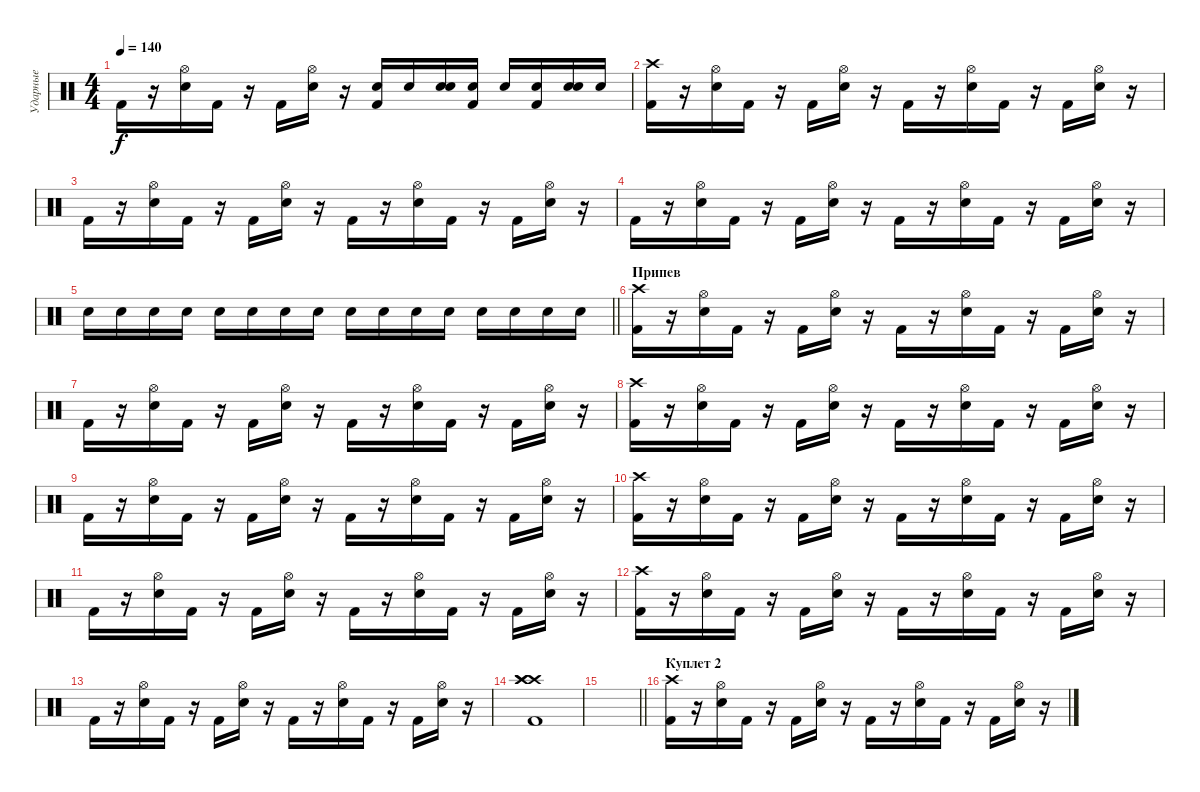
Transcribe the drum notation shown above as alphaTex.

\track ("Ударные" "Ударные") {instrument percussion}
\staff {score}
\articulation defaults
\ts (4 4)
\tempo 140
\clef neutral
\ks c "Kick (hit) 2".16{dy f}
r.16 ("Electric Snare (hit)" "Hi-Hat (open)").16 "Kick (hit) 2".16 r.16 "Kick (hit) 2".16 ("Electric Snare (hit)" "Hi-Hat (open)").16 r.16 ("Kick (hit) 2" "Electric Snare (hit)").16 "Electric Snare (hit)".16 ("Electric Snare (hit)" "Electric Snare (hit)").16 ("Kick (hit) 2" "Electric Snare (hit)").16 "Electric Snare (hit)".16 ("Kick (hit) 2" "Electric Snare (hit)").16 ("Electric Snare (hit)" "Electric Snare (hit)").16 "Electric Snare (hit)".16 |
("Kick (hit) 2" "Crash high (hit)").16 r.16 ("Electric Snare (hit)" "Hi-Hat (open)").16 "Kick (hit) 2".16 r.16 "Kick (hit) 2".16 ("Electric Snare (hit)" "Hi-Hat (open)").16 r.16 "Kick (hit) 2".16 r.16 ("Electric Snare (hit)" "Hi-Hat (open)").16 "Kick (hit) 2".16 r.16 "Kick (hit) 2".16 ("Electric Snare (hit)" "Hi-Hat (open)").16 r.16 |
"Kick (hit) 2".16 r.16 ("Electric Snare (hit)" "Hi-Hat (open)").16 "Kick (hit) 2".16 r.16 "Kick (hit) 2".16 ("Electric Snare (hit)" "Hi-Hat (open)").16 r.16 "Kick (hit) 2".16 r.16 ("Electric Snare (hit)" "Hi-Hat (open)").16 "Kick (hit) 2".16 r.16 "Kick (hit) 2".16 ("Electric Snare (hit)" "Hi-Hat (open)").16 r.16 |
"Kick (hit) 2".16 r.16 ("Electric Snare (hit)" "Hi-Hat (open)").16 "Kick (hit) 2".16 r.16 "Kick (hit) 2".16 ("Electric Snare (hit)" "Hi-Hat (open)").16 r.16 "Kick (hit) 2".16 r.16 ("Electric Snare (hit)" "Hi-Hat (open)").16 "Kick (hit) 2".16 r.16 "Kick (hit) 2".16 ("Electric Snare (hit)" "Hi-Hat (open)").16 r.16 |
\barLineRight lightlight "Electric Snare (hit)".16 "Electric Snare (hit)".16 "Electric Snare (hit)".16 "Electric Snare (hit)".16 "Electric Snare (hit)".16 "Electric Snare (hit)".16 "Electric Snare (hit)".16 "Electric Snare (hit)".16 "Electric Snare (hit)".16 "Electric Snare (hit)".16 "Electric Snare (hit)".16 "Electric Snare (hit)".16 "Electric Snare (hit)".16 "Electric Snare (hit)".16 "Electric Snare (hit)".16 "Electric Snare (hit)".16
|
\section ("" "Припев")
("Kick (hit) 2" "Crash high (hit)").16 r.16 ("Electric Snare (hit)" "Hi-Hat (open)").16 "Kick (hit) 2".16 r.16 "Kick (hit) 2".16 ("Electric Snare (hit)" "Hi-Hat (open)").16 r.16 "Kick (hit) 2".16 r.16 ("Electric Snare (hit)" "Hi-Hat (open)").16 "Kick (hit) 2".16 r.16 "Kick (hit) 2".16 ("Electric Snare (hit)" "Hi-Hat (open)").16 r.16 |
"Kick (hit) 2".16 r.16 ("Electric Snare (hit)" "Hi-Hat (open)").16 "Kick (hit) 2".16 r.16 "Kick (hit) 2".16 ("Electric Snare (hit)" "Hi-Hat (open)").16 r.16 "Kick (hit) 2".16 r.16 ("Electric Snare (hit)" "Hi-Hat (open)").16 "Kick (hit) 2".16 r.16 "Kick (hit) 2".16 ("Electric Snare (hit)" "Hi-Hat (open)").16 r.16 |
("Kick (hit) 2" "Crash high (hit)").16 r.16 ("Electric Snare (hit)" "Hi-Hat (open)").16 "Kick (hit) 2".16 r.16 "Kick (hit) 2".16 ("Electric Snare (hit)" "Hi-Hat (open)").16 r.16 "Kick (hit) 2".16 r.16 ("Electric Snare (hit)" "Hi-Hat (open)").16 "Kick (hit) 2".16 r.16 "Kick (hit) 2".16 ("Electric Snare (hit)" "Hi-Hat (open)").16 r.16 |
"Kick (hit) 2".16 r.16 ("Electric Snare (hit)" "Hi-Hat (open)").16 "Kick (hit) 2".16 r.16 "Kick (hit) 2".16 ("Electric Snare (hit)" "Hi-Hat (open)").16 r.16 "Kick (hit) 2".16 r.16 ("Electric Snare (hit)" "Hi-Hat (open)").16 "Kick (hit) 2".16 r.16 "Kick (hit) 2".16 ("Electric Snare (hit)" "Hi-Hat (open)").16 r.16 |
("Kick (hit) 2" "Crash high (hit)").16 r.16 ("Electric Snare (hit)" "Hi-Hat (open)").16 "Kick (hit) 2".16 r.16 "Kick (hit) 2".16 ("Electric Snare (hit)" "Hi-Hat (open)").16 r.16 "Kick (hit) 2".16 r.16 ("Electric Snare (hit)" "Hi-Hat (open)").16 "Kick (hit) 2".16 r.16 "Kick (hit) 2".16 ("Electric Snare (hit)" "Hi-Hat (open)").16 r.16 |
"Kick (hit) 2".16 r.16 ("Electric Snare (hit)" "Hi-Hat (open)").16 "Kick (hit) 2".16 r.16 "Kick (hit) 2".16 ("Electric Snare (hit)" "Hi-Hat (open)").16 r.16 "Kick (hit) 2".16 r.16 ("Electric Snare (hit)" "Hi-Hat (open)").16 "Kick (hit) 2".16 r.16 "Kick (hit) 2".16 ("Electric Snare (hit)" "Hi-Hat (open)").16 r.16 |
("Kick (hit) 2" "Crash high (hit)").16 r.16 ("Electric Snare (hit)" "Hi-Hat (open)").16 "Kick (hit) 2".16 r.16 "Kick (hit) 2".16 ("Electric Snare (hit)" "Hi-Hat (open)").16 r.16 "Kick (hit) 2".16 r.16 ("Electric Snare (hit)" "Hi-Hat (open)").16 "Kick (hit) 2".16 r.16 "Kick (hit) 2".16 ("Electric Snare (hit)" "Hi-Hat (open)").16 r.16 |
"Kick (hit) 2".16 r.16 ("Electric Snare (hit)" "Hi-Hat (open)").16 "Kick (hit) 2".16 r.16 "Kick (hit) 2".16 ("Electric Snare (hit)" "Hi-Hat (open)").16 r.16 "Kick (hit) 2".16 r.16 ("Electric Snare (hit)" "Hi-Hat (open)").16 "Kick (hit) 2".16 r.16 "Kick (hit) 2".16 ("Electric Snare (hit)" "Hi-Hat (open)").16 r.16 |
("Kick (hit) 2" "Crash high (hit)" "Crash high (hit)" "Crash high (hit)").1 |
\barLineRight lightlight
|
\section ("" "Куплет 2")
("Kick (hit) 2" "Crash high (hit)").16 r.16 ("Electric Snare (hit)" "Hi-Hat (open)").16 "Kick (hit) 2".16 r.16 "Kick (hit) 2".16 ("Electric Snare (hit)" "Hi-Hat (open)").16 r.16 "Kick (hit) 2".16 r.16 ("Electric Snare (hit)" "Hi-Hat (open)").16 "Kick (hit) 2".16 r.16 "Kick (hit) 2".16 ("Electric Snare (hit)" "Hi-Hat (open)").16 r.16
